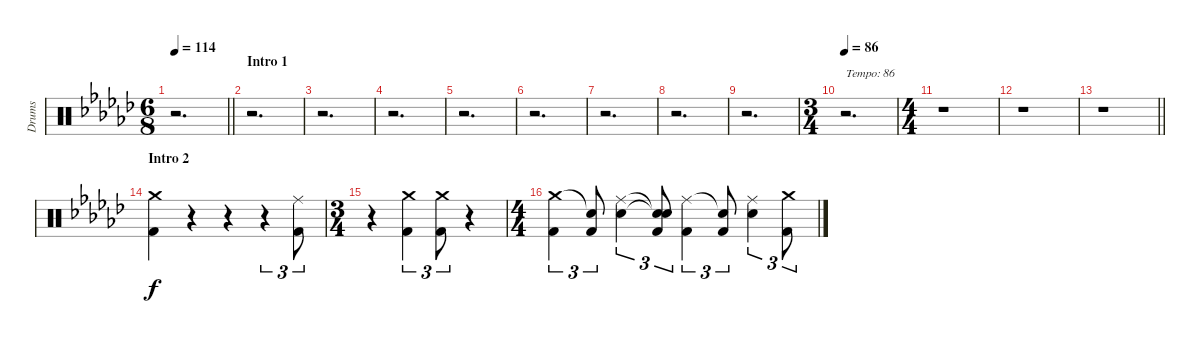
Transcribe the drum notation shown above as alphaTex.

\track ("Drums" "Drums") {instrument percussion}
\staff {score}
\articulation defaults
\ts (6 8)
\tempo 114
\clef neutral
\barLineRight lightlight
\ks ebminor
r.2{d dy f} |
\section ("" "Intro 1")
r.2{d} |
r.2{d} |
r.2{d} |
r.2{d} |
r.2{d} |
r.2{d} |
r.2{d} |
r.2{d} |
\ts (3 4)
\tempo 86
r.2{d txt "Tempo: 86"} |
\ts (4 4)
r.1 |
r.1 |
\barLineRight lightlight
r.1 |
\section ("" "Intro 2")
("Crash medium (hit)" "Kick (hit) 2").4 r.4 r.4 r.4{tu (3 2)} ("Ride (middle)" "Kick (hit) 2").8{tu (3 2)} |
\ts (3 4)
r.4 ("Crash medium (hit)" "Kick (hit) 2").4{tu (3 2)} ("Crash medium (hit)" "Kick (hit) 2").8{tu (3 2)} r.4 |
\ts (4 4)
("Crash medium (hit)" "Kick (hit) 2").4{tu (3 2)} ("Snare (hit)"{t} "Kick (hit) 2").8{tu (3 2)} ("Ride (middle)" "Electric Snare (hit)").4{tu (3 2)} ("Snare (hit)"{t} "Snare (hit)"{t} "Kick (hit) 2").8{tu (3 2)} ("Ride (middle)" "Kick (hit) 2").4{tu (3 2)} ("Snare (hit)"{t} "Kick (hit) 2").8{tu (3 2)} ("Ride (middle)" "Electric Snare (hit)").4{tu (3 2)} ("Crash medium (hit)" "Kick (hit) 2").8{tu (3 2)}
